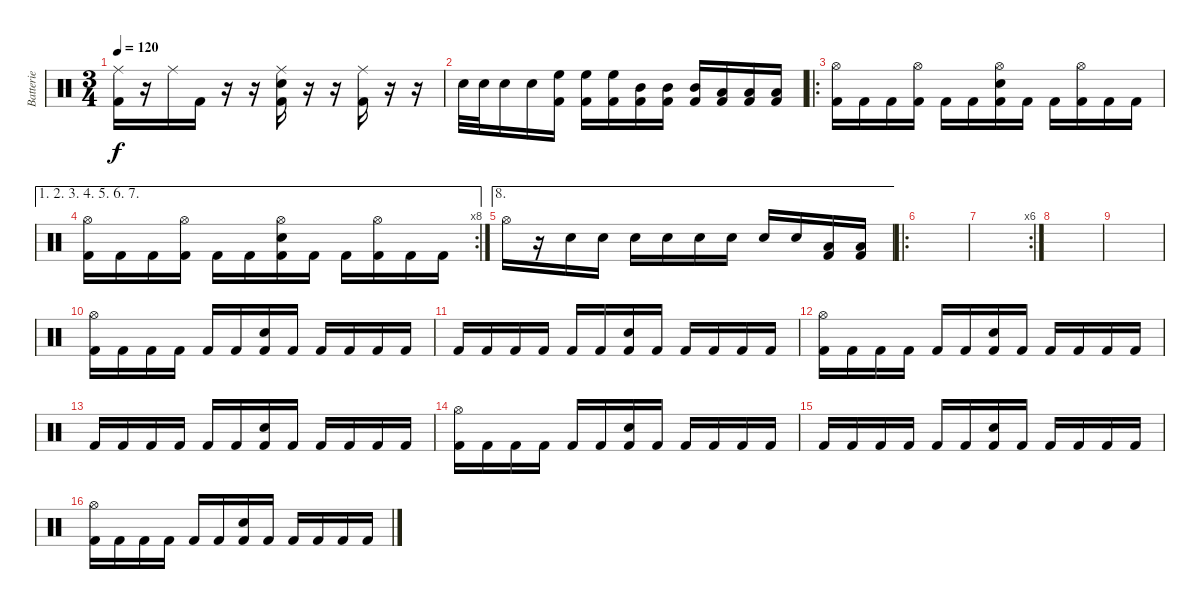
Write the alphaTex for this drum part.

\track ("Batterie" "Batterie") {instrument percussion}
\staff {score}
\articulation defaults
\ts (3 4)
\tempo 120
\clef neutral
\ks c
("Ride (middle)" "Kick (hit) 2").16{dy f} r.16 "Ride (middle)".16 "Kick (hit) 2".16 r.16 r.16 ("Ride (middle)" "Electric Snare (hit)" "Kick (hit) 2").16 r.16 r.16 ("Ride (middle)" "Kick (hit) 2").16 r.16 r.16 |
"Electric Snare (hit)".32 "Electric Snare (hit)".32 "Electric Snare (hit)".16 "Electric Snare (hit)".16 ("High Floor Tom (hit)" "Kick (hit) 2").16 ("High Floor Tom (hit)" "Kick (hit) 2").16 ("High Floor Tom (hit)" "Kick (hit) 2").16 ("Mid Tom (hit)" "Kick (hit) 2").16 ("Mid Tom (hit)" "Kick (hit) 2").16 ("Mid Tom (hit)" "Kick (hit) 2").16 ("Low Tom (hit)" "Kick (hit) 2").16 ("Low Tom (hit)" "Kick (hit) 2").16 ("Low Tom (hit)" "Kick (hit) 2").16 |
\ro
("Hi-Hat (open)" "Kick (hit) 2").16 "Kick (hit) 2".16 "Kick (hit) 2".16 ("Hi-Hat (open)" "Kick (hit) 2").16 "Kick (hit) 2".16 "Kick (hit) 2".16 ("Hi-Hat (open)" "Electric Snare (hit)" "Kick (hit) 2").16 "Kick (hit) 2".16 "Kick (hit) 2".16 ("Hi-Hat (open)" "Kick (hit) 2").16 "Kick (hit) 2".16 "Kick (hit) 2".16 |
\ae (1 2 3 4 5 6 7)
\rc 8
("Hi-Hat (open)" "Kick (hit) 2").16 "Kick (hit) 2".16 "Kick (hit) 2".16 ("Hi-Hat (open)" "Kick (hit) 2").16 "Kick (hit) 2".16 "Kick (hit) 2".16 ("Hi-Hat (open)" "Electric Snare (hit)" "Kick (hit) 2").16 "Kick (hit) 2".16 "Kick (hit) 2".16 ("Hi-Hat (open)" "Kick (hit) 2").16 "Kick (hit) 2".16 "Kick (hit) 2".16 |
\ae 8 "Hi-Hat (open)".16
r.16 "Electric Snare (hit)".16 "Electric Snare (hit)".16 "Snare (hit) 2".16 "Snare (hit) 2".16 "Electric Snare (hit)".16 "Electric Snare (hit)".16 "Snare (hit) 2".16 "Snare (hit) 2".16 ("Low Tom (hit)" "Kick (hit) 2").16 ("Low Tom (hit)" "Kick (hit) 2").16 |
\ro
|
\rc 6
|
|
|
("Hi-Hat (open)" "Kick (hit) 2").16 "Kick (hit) 2".16 "Kick (hit) 2".16 "Kick (hit) 2".16 "Kick (hit) 2".16 "Kick (hit) 2".16 ("Electric Snare (hit)" "Kick (hit) 2").16 "Kick (hit) 2".16 "Kick (hit) 2".16 "Kick (hit) 2".16 "Kick (hit) 2".16 "Kick (hit) 2".16 |
"Kick (hit) 2".16 "Kick (hit) 2".16 "Kick (hit) 2".16 "Kick (hit) 2".16 "Kick (hit) 2".16 "Kick (hit) 2".16 ("Electric Snare (hit)" "Kick (hit) 2").16 "Kick (hit) 2".16 "Kick (hit) 2".16 "Kick (hit) 2".16 "Kick (hit) 2".16 "Kick (hit) 2".16 |
("Hi-Hat (open)" "Kick (hit) 2").16 "Kick (hit) 2".16 "Kick (hit) 2".16 "Kick (hit) 2".16 "Kick (hit) 2".16 "Kick (hit) 2".16 ("Electric Snare (hit)" "Kick (hit) 2").16 "Kick (hit) 2".16 "Kick (hit) 2".16 "Kick (hit) 2".16 "Kick (hit) 2".16 "Kick (hit) 2".16 |
"Kick (hit) 2".16 "Kick (hit) 2".16 "Kick (hit) 2".16 "Kick (hit) 2".16 "Kick (hit) 2".16 "Kick (hit) 2".16 ("Electric Snare (hit)" "Kick (hit) 2").16 "Kick (hit) 2".16 "Kick (hit) 2".16 "Kick (hit) 2".16 "Kick (hit) 2".16 "Kick (hit) 2".16 |
("Hi-Hat (open)" "Kick (hit) 2").16 "Kick (hit) 2".16 "Kick (hit) 2".16 "Kick (hit) 2".16 "Kick (hit) 2".16 "Kick (hit) 2".16 ("Electric Snare (hit)" "Kick (hit) 2").16 "Kick (hit) 2".16 "Kick (hit) 2".16 "Kick (hit) 2".16 "Kick (hit) 2".16 "Kick (hit) 2".16 |
"Kick (hit) 2".16 "Kick (hit) 2".16 "Kick (hit) 2".16 "Kick (hit) 2".16 "Kick (hit) 2".16 "Kick (hit) 2".16 ("Electric Snare (hit)" "Kick (hit) 2").16 "Kick (hit) 2".16 "Kick (hit) 2".16 "Kick (hit) 2".16 "Kick (hit) 2".16 "Kick (hit) 2".16 |
("Hi-Hat (open)" "Kick (hit) 2").16 "Kick (hit) 2".16 "Kick (hit) 2".16 "Kick (hit) 2".16 "Kick (hit) 2".16 "Kick (hit) 2".16 ("Electric Snare (hit)" "Kick (hit) 2").16 "Kick (hit) 2".16 "Kick (hit) 2".16 "Kick (hit) 2".16 "Kick (hit) 2".16 "Kick (hit) 2".16
